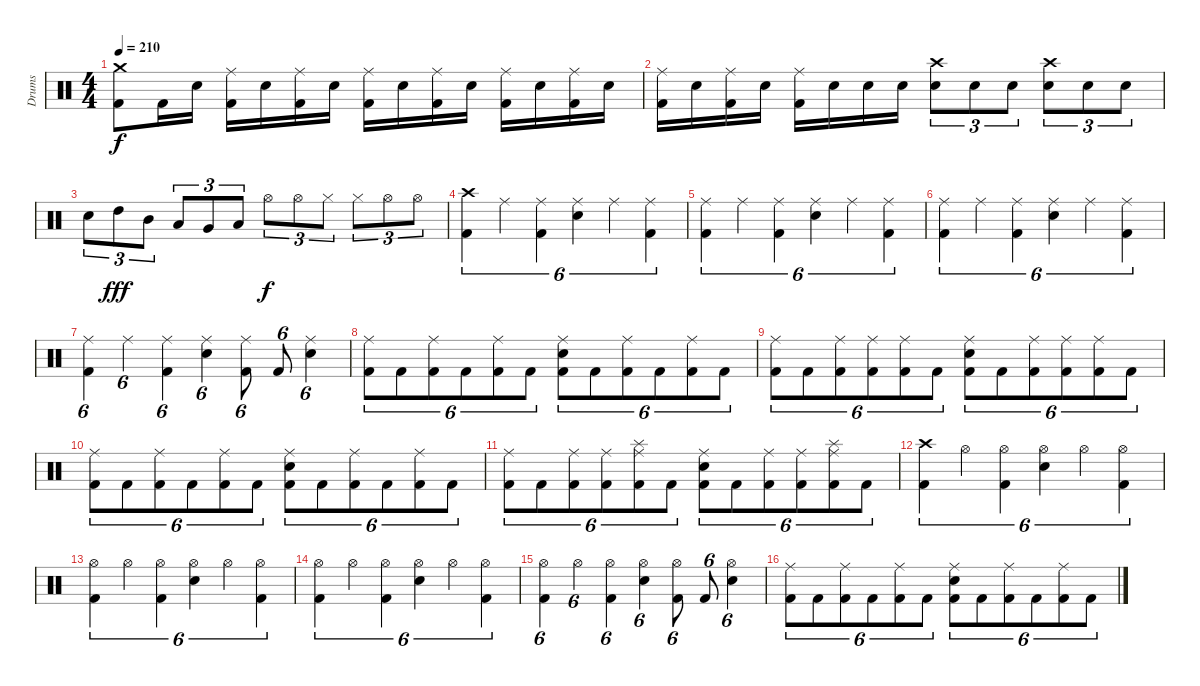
\track ("Drums" "Drums") {instrument percussion}
\staff {score}
\articulation defaults
\ts (4 4)
\tempo 210
\clef neutral
\ks c
("Kick (hit) 2" "Crash medium (hit)").8{dy f} "Kick (hit) 2".16 "Electric Snare (hit)".16 ("Kick (hit) 2" "Ride (middle)").16 "Electric Snare (hit)".16 ("Kick (hit) 2" "Ride (middle)").16 "Electric Snare (hit)".16 ("Kick (hit) 2" "Ride (middle)").16 "Electric Snare (hit)".16 ("Kick (hit) 2" "Ride (middle)").16 "Electric Snare (hit)".16 ("Kick (hit) 2" "Ride (middle)").16 "Electric Snare (hit)".16 ("Kick (hit) 2" "Ride (middle)").16 "Electric Snare (hit)".16 |
("Kick (hit) 2" "Ride (middle)").16 "Electric Snare (hit)".16 ("Kick (hit) 2" "Ride (middle)").16 "Electric Snare (hit)".16 ("Kick (hit) 2" "Ride (middle)").16 "Electric Snare (hit)".16 "Electric Snare (hit)".16 "Electric Snare (hit)".16 ("Crash high (hit)" "Electric Snare (hit)").8{tu (3 2)} "Electric Snare (hit)".8{tu (3 2)} "Electric Snare (hit)".8{tu (3 2)} ("Crash high (hit)" "Electric Snare (hit)").8{tu (3 2)} "Electric Snare (hit)".8{tu (3 2)} "Electric Snare (hit)".8{tu (3 2)} |
"Electric Snare (hit)".8{tu (3 2)} "High Tom (hit)".8{tu (3 2) dy fff} "Mid Tom (hit)".8{tu (3 2)} "Low Tom (hit)".8{tu (3 2)} "Very Low Tom (hit)".8{tu (3 2)} "Low Floor Tom (hit)".8{tu (3 2)} "Hi-Hat (open)".8{tu (3 2) dy f} "Hi-Hat (open)".8{tu (3 2)} "Hi-Hat (closed)".8{tu (3 2)} "Hi-Hat (closed)".8{tu (3 2)} "Hi-Hat (open)".8{tu (3 2)} "Hi-Hat (open)".8{tu (3 2)} |
("Kick (hit) 2" "Crash high (hit)").4{tu (6 4)} "Ride (middle)".4{tu (6 4)} ("Kick (hit) 2" "Ride (middle)").4{tu (6 4)} ("Snare (hit) 2" "Ride (middle)").4{tu (6 4)} "Ride (middle)".4{tu (6 4)} ("Kick (hit) 2" "Ride (middle)").4{tu (6 4)} |
("Kick (hit) 2" "Ride (middle)").4{tu (6 4)} "Ride (middle)".4{tu (6 4)} ("Kick (hit) 2" "Ride (middle)").4{tu (6 4)} ("Snare (hit) 2" "Ride (middle)").4{tu (6 4)} "Ride (middle)".4{tu (6 4)} ("Kick (hit) 2" "Ride (middle)").4{tu (6 4)} |
("Kick (hit) 2" "Ride (middle)").4{tu (6 4)} "Ride (middle)".4{tu (6 4)} ("Kick (hit) 2" "Ride (middle)").4{tu (6 4)} ("Snare (hit) 2" "Ride (middle)").4{tu (6 4)} "Ride (middle)".4{tu (6 4)} ("Kick (hit) 2" "Ride (middle)").4{tu (6 4)} |
("Kick (hit) 2" "Ride (middle)").4{tu (6 4)} "Ride (middle)".4{tu (6 4)} ("Kick (hit) 2" "Ride (middle)").4{tu (6 4)} ("Snare (hit) 2" "Ride (middle)").4{tu (6 4)} ("Kick (hit) 2" "Ride (middle)").8{tu (6 4)} "Kick (hit) 2".8{tu (6 4)} ("Snare (hit) 2" "Ride (middle)").4{tu (6 4)} |
("Kick (hit) 2" "Ride (middle)").8{tu (6 4)} "Kick (hit) 2".8{tu (6 4)} ("Kick (hit) 2" "Ride (middle)").8{tu (6 4)} "Kick (hit) 2".8{tu (6 4)} ("Kick (hit) 2" "Ride (middle)").8{tu (6 4)} "Kick (hit) 2".8{tu (6 4)} ("Kick (hit) 2" "Snare (hit) 2" "Ride (middle)").8{tu (6 4)} "Kick (hit) 2".8{tu (6 4)} ("Kick (hit) 2" "Ride (middle)").8{tu (6 4)} "Kick (hit) 2".8{tu (6 4)} ("Kick (hit) 2" "Ride (middle)").8{tu (6 4)} "Kick (hit) 2".8{tu (6 4)} |
("Kick (hit) 2" "Ride (middle)").8{tu (6 4)} "Kick (hit) 2".8{tu (6 4)} ("Kick (hit) 2" "Ride (middle)").8{tu (6 4)} ("Kick (hit) 2" "Ride (middle)").8{tu (6 4)} ("Kick (hit) 2" "Ride (middle)").8{tu (6 4)} "Kick (hit) 2".8{tu (6 4)} ("Kick (hit) 2" "Snare (hit) 2" "Ride (middle)").8{tu (6 4)} "Kick (hit) 2".8{tu (6 4)} ("Kick (hit) 2" "Ride (middle)").8{tu (6 4)} ("Kick (hit) 2" "Ride (middle)").8{tu (6 4)} ("Kick (hit) 2" "Ride (middle)").8{tu (6 4)} "Kick (hit) 2".8{tu (6 4)} |
("Kick (hit) 2" "Ride (middle)").8{tu (6 4)} "Kick (hit) 2".8{tu (6 4)} ("Kick (hit) 2" "Ride (middle)").8{tu (6 4)} "Kick (hit) 2".8{tu (6 4)} ("Kick (hit) 2" "Ride (middle)").8{tu (6 4)} "Kick (hit) 2".8{tu (6 4)} ("Kick (hit) 2" "Snare (hit) 2" "Ride (middle)").8{tu (6 4)} "Kick (hit) 2".8{tu (6 4)} ("Kick (hit) 2" "Ride (middle)").8{tu (6 4)} "Kick (hit) 2".8{tu (6 4)} ("Kick (hit) 2" "Ride (middle)").8{tu (6 4)} "Kick (hit) 2".8{tu (6 4)} |
("Kick (hit) 2" "Ride (middle)").8{tu (6 4)} "Kick (hit) 2".8{tu (6 4)} ("Kick (hit) 2" "Ride (middle)").8{tu (6 4)} ("Kick (hit) 2" "Ride (middle)").8{tu (6 4)} ("Kick (hit) 2" "Ride (middle)" "Splash (hit)").8{tu (6 4)} "Kick (hit) 2".8{tu (6 4)} ("Kick (hit) 2" "Snare (hit) 2" "Ride (middle)").8{tu (6 4)} "Kick (hit) 2".8{tu (6 4)} ("Kick (hit) 2" "Ride (middle)").8{tu (6 4)} ("Kick (hit) 2" "Ride (middle)").8{tu (6 4)} ("Kick (hit) 2" "Ride (middle)" "Splash (hit)").8{tu (6 4)} "Kick (hit) 2".8{tu (6 4)} |
("Kick (hit) 2" "Crash high (hit)").4{tu (6 4)} "Hi-Hat (open)".4{tu (6 4)} ("Kick (hit) 2" "Hi-Hat (open)").4{tu (6 4)} ("Snare (hit) 2" "Hi-Hat (open)").4{tu (6 4)} "Hi-Hat (open)".4{tu (6 4)} ("Kick (hit) 2" "Hi-Hat (open)").4{tu (6 4)} |
("Kick (hit) 2" "Hi-Hat (open)").4{tu (6 4)} "Hi-Hat (open)".4{tu (6 4)} ("Kick (hit) 2" "Hi-Hat (open)").4{tu (6 4)} ("Snare (hit) 2" "Hi-Hat (open)").4{tu (6 4)} "Hi-Hat (open)".4{tu (6 4)} ("Kick (hit) 2" "Hi-Hat (open)").4{tu (6 4)} |
("Kick (hit) 2" "Hi-Hat (open)").4{tu (6 4)} "Hi-Hat (open)".4{tu (6 4)} ("Kick (hit) 2" "Hi-Hat (open)").4{tu (6 4)} ("Snare (hit) 2" "Hi-Hat (open)").4{tu (6 4)} "Hi-Hat (open)".4{tu (6 4)} ("Kick (hit) 2" "Hi-Hat (open)").4{tu (6 4)} |
("Kick (hit) 2" "Hi-Hat (open)").4{tu (6 4)} "Hi-Hat (open)".4{tu (6 4)} ("Kick (hit) 2" "Hi-Hat (open)").4{tu (6 4)} ("Snare (hit) 2" "Hi-Hat (open)").4{tu (6 4)} ("Kick (hit) 2" "Hi-Hat (open)").8{tu (6 4)} "Kick (hit) 2".8{tu (6 4)} ("Snare (hit) 2" "Hi-Hat (open)").4{tu (6 4)} |
("Kick (hit) 2" "Ride (middle)").8{tu (6 4)} "Kick (hit) 2".8{tu (6 4)} ("Kick (hit) 2" "Ride (middle)").8{tu (6 4)} "Kick (hit) 2".8{tu (6 4)} ("Kick (hit) 2" "Ride (middle)").8{tu (6 4)} "Kick (hit) 2".8{tu (6 4)} ("Kick (hit) 2" "Snare (hit) 2" "Ride (middle)").8{tu (6 4)} "Kick (hit) 2".8{tu (6 4)} ("Kick (hit) 2" "Ride (middle)").8{tu (6 4)} "Kick (hit) 2".8{tu (6 4)} ("Kick (hit) 2" "Ride (middle)").8{tu (6 4)} "Kick (hit) 2".8{tu (6 4)}
